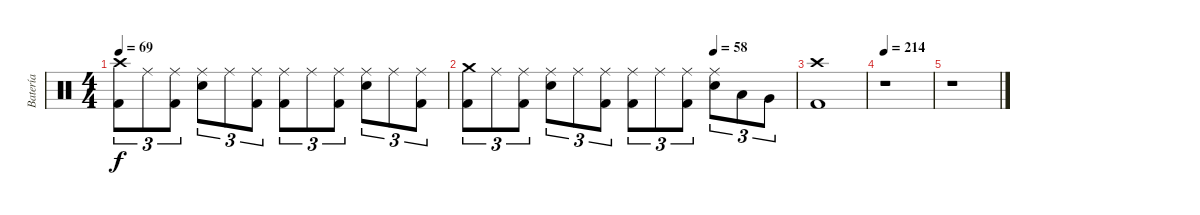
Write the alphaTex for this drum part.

\track ("Batería" "Batería") {instrument percussion}
\staff {score}
\articulation defaults
\ts (4 4)
\tempo 69
\clef neutral
\ks c
("Kick (hit) 2" "Crash high (hit)").8{tu (3 2) dy f} "Ride (middle)".8{tu (3 2)} ("Kick (hit) 2" "Ride (middle)").8{tu (3 2)} ("Electric Snare (hit)" "Ride (middle)").8{tu (3 2)} "Ride (middle)".8{tu (3 2)} ("Kick (hit) 2" "Ride (middle)").8{tu (3 2)} ("Kick (hit) 2" "Ride (middle)").8{tu (3 2)} "Ride (middle)".8{tu (3 2)} ("Kick (hit) 2" "Ride (middle)").8{tu (3 2)} ("Electric Snare (hit)" "Ride (middle)").8{tu (3 2)} "Ride (middle)".8{tu (3 2)} ("Kick (hit) 2" "Ride (middle)").8{tu (3 2)} |
\tempo (58 0.75)
("Kick (hit) 2" "Crash medium (hit)").8{tu (3 2)} "Ride (middle)".8{tu (3 2)} ("Kick (hit) 2" "Ride (middle)").8{tu (3 2)} ("Electric Snare (hit)" "Ride (middle)").8{tu (3 2)} "Ride (middle)".8{tu (3 2)} ("Kick (hit) 2" "Ride (middle)").8{tu (3 2)} ("Kick (hit) 2" "Ride (middle)").8{tu (3 2)} "Ride (middle)".8{tu (3 2)} ("Kick (hit) 2" "Ride (middle)").8{tu (3 2)} ("Electric Snare (hit)" "Ride (middle)").8{tu (3 2)} "Low Tom (hit)".8{tu (3 2)} "Very Low Tom (hit)".8{tu (3 2)} |
("Kick (hit) 2" "Crash high (hit)").1 |
\tempo 214
r.1 |
r.1
